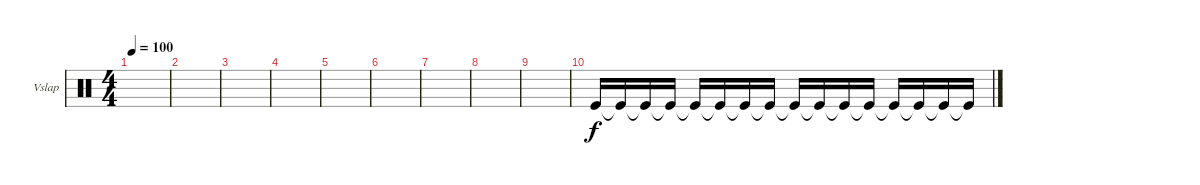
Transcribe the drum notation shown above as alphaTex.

\defaultSystemsLayout 4
\bracketExtendMode groupsimilarinstruments
\firstSystemTrackNameOrientation horizontal
\otherSystemsTrackNameOrientation horizontal
\track ("Vibraslap" "Vslap") {instrument percussion}
\staff {score}
\articulation defaults
\ts (4 4)
\tempo 100
\clef neutral
\scale
0.333333
\ks c
|
\scale
0.333333 |
\scale
0.333333 |
\scale
0.333333 |
\scale
0.333333 |
\scale
0.333333 |
\scale
0.333333 |
\scale
0.333333 |
\scale
0.333333 |
\scale
0.333333 "Kick (hit)".16 "Kick (hit)"{t}.16 "Kick (hit)"{t}.16 "Kick (hit)"{t}.16 "Kick (hit)"{t}.16 "Kick (hit)"{t}.16 "Kick (hit)"{t}.16 "Kick (hit)"{t}.16 "Kick (hit)"{t}.16 "Kick (hit)"{t}.16 "Kick (hit)"{t}.16 "Kick (hit)"{t}.16 "Kick (hit)"{t}.16 "Kick (hit)"{t}.16 "Kick (hit)"{t}.16 "Kick (hit)"{t}.16 |
\scale
0.333333 |
\scale
0.333333 |
\scale
0.333333
